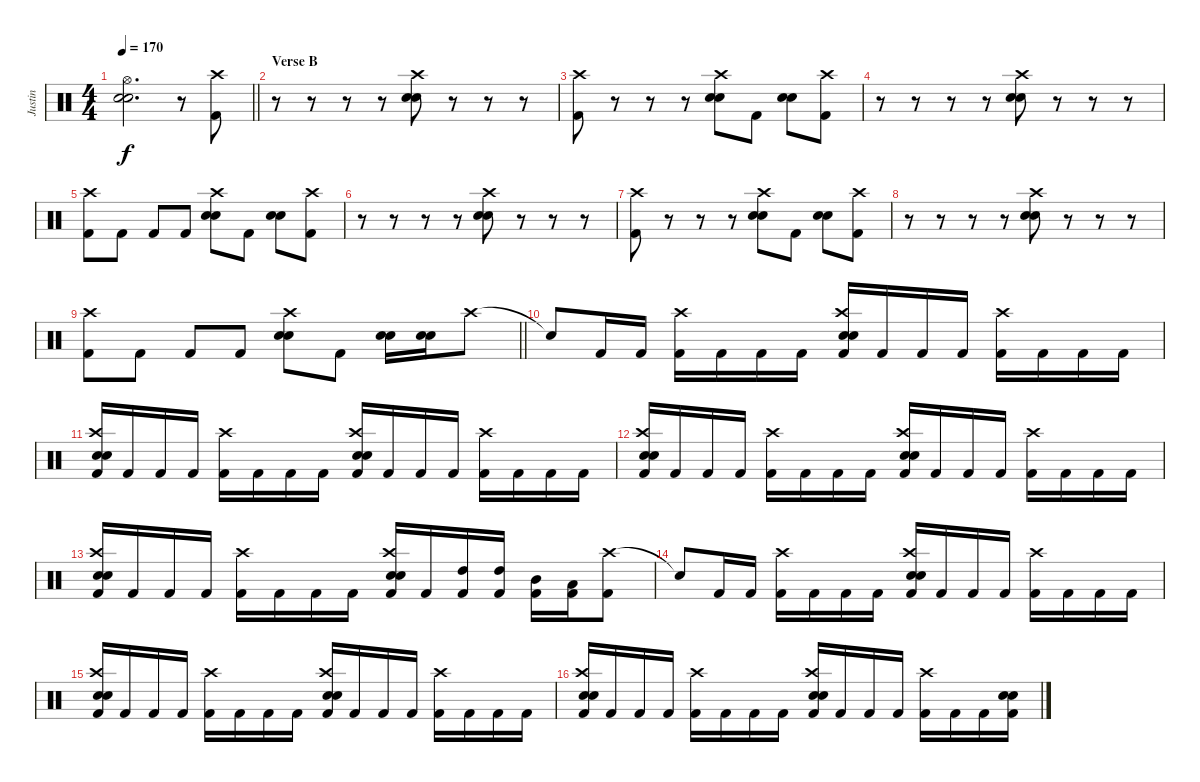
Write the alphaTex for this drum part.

\track ("Justin" "Justin") {instrument percussion}
\staff {score}
\articulation defaults
\ts (4 4)
\tempo 170
\clef neutral
\barLineRight lightlight
\ks c
("Hi-Hat (open)" "Electric Snare (hit)" "Snare (hit) 2").2{d dy f} r.8 ("Crash high (hit)" "Kick (hit) 2").8 |
\section ("" "Verse B")
r.8 r.8 r.8 r.8 ("Crash high (hit)" "Electric Snare (hit)" "Snare (hit) 2").8 r.8 r.8 r.8 |
("Crash high (hit)" "Kick (hit) 2").8 r.8 r.8 r.8 ("Crash high (hit)" "Electric Snare (hit)" "Snare (hit) 2").8 "Kick (hit) 2".8 ("Electric Snare (hit)" "Snare (hit) 2").8 ("Crash high (hit)" "Kick (hit) 2").8 |
r.8 r.8 r.8 r.8 ("Crash high (hit)" "Electric Snare (hit)" "Snare (hit) 2").8 r.8 r.8 r.8 |
("Crash high (hit)" "Kick (hit) 2").8 "Kick (hit) 2".8 "Kick (hit) 2".8 "Kick (hit) 2".8 ("Crash high (hit)" "Electric Snare (hit)" "Snare (hit) 2").8 "Kick (hit) 2".8 ("Electric Snare (hit)" "Snare (hit) 2").8 ("Crash high (hit)" "Kick (hit) 2").8 |
r.8 r.8 r.8 r.8 ("Crash high (hit)" "Electric Snare (hit)" "Snare (hit) 2").8 r.8 r.8 r.8 |
("Crash high (hit)" "Kick (hit) 2").8 r.8 r.8 r.8 ("Crash high (hit)" "Electric Snare (hit)" "Snare (hit) 2").8 "Kick (hit) 2".8 ("Electric Snare (hit)" "Snare (hit) 2").8 ("Crash high (hit)" "Kick (hit) 2").8 |
r.8 r.8 r.8 r.8 ("Crash high (hit)" "Electric Snare (hit)" "Snare (hit) 2").8 r.8 r.8 r.8 |
\barLineRight lightlight
("Crash high (hit)" "Kick (hit) 2").8 "Kick (hit) 2".8 "Kick (hit) 2".8 "Kick (hit) 2".8 ("Crash high (hit)" "Electric Snare (hit)" "Snare (hit) 2").8 "Kick (hit) 2".8 ("Electric Snare (hit)" "Snare (hit) 2").16 ("Electric Snare (hit)" "Snare (hit) 2").16 "Crash high (hit)".8 |
"Snare (hit)"{t}.8 "Kick (hit) 2".16 "Kick (hit) 2".16 ("Crash high (hit)" "Kick (hit) 2").16 "Kick (hit) 2".16 "Kick (hit) 2".16 "Kick (hit) 2".16 ("Crash high (hit)" "Electric Snare (hit)" "Snare (hit) 2" "Kick (hit) 2").16 "Kick (hit) 2".16 "Kick (hit) 2".16 "Kick (hit) 2".16 ("Crash high (hit)" "Kick (hit) 2").16 "Kick (hit) 2".16 "Kick (hit) 2".16 "Kick (hit) 2".16 |
("Crash high (hit)" "Electric Snare (hit)" "Snare (hit) 2" "Kick (hit) 2").16 "Kick (hit) 2".16 "Kick (hit) 2".16 "Kick (hit) 2".16 ("Crash high (hit)" "Kick (hit) 2").16 "Kick (hit) 2".16 "Kick (hit) 2".16 "Kick (hit) 2".16 ("Crash high (hit)" "Electric Snare (hit)" "Snare (hit) 2" "Kick (hit) 2").16 "Kick (hit) 2".16 "Kick (hit) 2".16 "Kick (hit) 2".16 ("Crash high (hit)" "Kick (hit) 2").16 "Kick (hit) 2".16 "Kick (hit) 2".16 "Kick (hit) 2".16 |
("Crash high (hit)" "Electric Snare (hit)" "Snare (hit) 2" "Kick (hit) 2").16 "Kick (hit) 2".16 "Kick (hit) 2".16 "Kick (hit) 2".16 ("Crash high (hit)" "Kick (hit) 2").16 "Kick (hit) 2".16 "Kick (hit) 2".16 "Kick (hit) 2".16 ("Crash high (hit)" "Electric Snare (hit)" "Snare (hit) 2" "Kick (hit) 2").16 "Kick (hit) 2".16 "Kick (hit) 2".16 "Kick (hit) 2".16 ("Crash high (hit)" "Kick (hit) 2").16 "Kick (hit) 2".16 "Kick (hit) 2".16 "Kick (hit) 2".16 |
("Crash high (hit)" "Electric Snare (hit)" "Snare (hit) 2" "Kick (hit) 2").16 "Kick (hit) 2".16 "Kick (hit) 2".16 "Kick (hit) 2".16 ("Crash high (hit)" "Kick (hit) 2").16 "Kick (hit) 2".16 "Kick (hit) 2".16 "Kick (hit) 2".16 ("Crash high (hit)" "Electric Snare (hit)" "Snare (hit) 2" "Kick (hit) 2").16 "Kick (hit) 2".16 ("High Tom (hit)" "Kick (hit) 2").16 ("High Tom (hit)" "Kick (hit) 2").16 ("Mid Tom (hit)" "Kick (hit) 2").16 ("Low Tom (hit)" "Kick (hit) 2").16 ("Crash high (hit)" "Kick (hit) 2").8 |
"Snare (hit)"{t}.8 "Kick (hit) 2".16 "Kick (hit) 2".16 ("Crash high (hit)" "Kick (hit) 2").16 "Kick (hit) 2".16 "Kick (hit) 2".16 "Kick (hit) 2".16 ("Crash high (hit)" "Electric Snare (hit)" "Snare (hit) 2" "Kick (hit) 2").16 "Kick (hit) 2".16 "Kick (hit) 2".16 "Kick (hit) 2".16 ("Crash high (hit)" "Kick (hit) 2").16 "Kick (hit) 2".16 "Kick (hit) 2".16 "Kick (hit) 2".16 |
("Crash high (hit)" "Electric Snare (hit)" "Snare (hit) 2" "Kick (hit) 2").16 "Kick (hit) 2".16 "Kick (hit) 2".16 "Kick (hit) 2".16 ("Crash high (hit)" "Kick (hit) 2").16 "Kick (hit) 2".16 "Kick (hit) 2".16 "Kick (hit) 2".16 ("Crash high (hit)" "Electric Snare (hit)" "Snare (hit) 2" "Kick (hit) 2").16 "Kick (hit) 2".16 "Kick (hit) 2".16 "Kick (hit) 2".16 ("Crash high (hit)" "Kick (hit) 2").16 "Kick (hit) 2".16 "Kick (hit) 2".16 "Kick (hit) 2".16 |
("Crash high (hit)" "Electric Snare (hit)" "Snare (hit) 2" "Kick (hit) 2").16 "Kick (hit) 2".16 "Kick (hit) 2".16 "Kick (hit) 2".16 ("Crash high (hit)" "Kick (hit) 2").16 "Kick (hit) 2".16 "Kick (hit) 2".16 "Kick (hit) 2".16 ("Crash high (hit)" "Electric Snare (hit)" "Snare (hit) 2" "Kick (hit) 2").16 "Kick (hit) 2".16 "Kick (hit) 2".16 "Kick (hit) 2".16 ("Crash high (hit)" "Kick (hit) 2").16 "Kick (hit) 2".16 "Kick (hit) 2".16 ("Electric Snare (hit)" "Snare (hit) 2" "Kick (hit) 2").16
